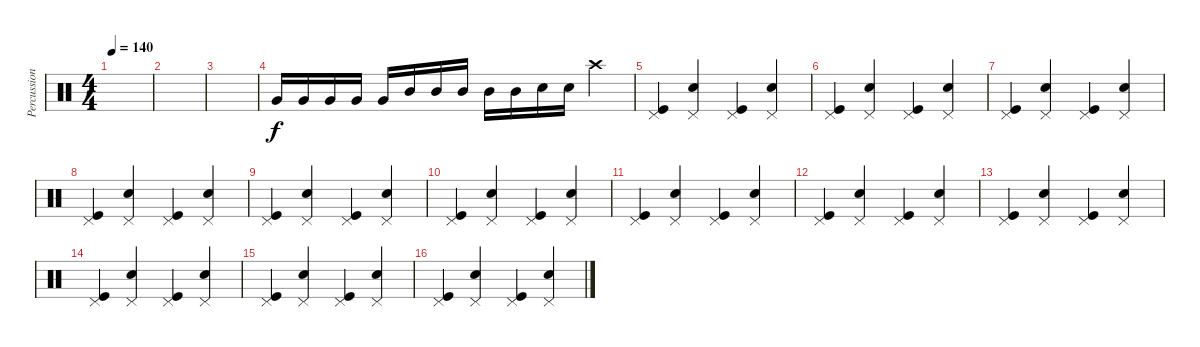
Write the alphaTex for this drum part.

\track ("Percussion" "Percussion") {instrument percussion}
\staff {score}
\articulation defaults
\ts (4 4)
\tempo 140
\clef neutral
\ks c
|
|
|
"Very Low Tom (hit)".16 "Very Low Tom (hit)".16 "Very Low Tom (hit)".16 "Very Low Tom (hit)".16 "Very Low Tom (hit)".16 "Mid Tom (hit)".16 "Mid Tom (hit)".16 "Mid Tom (hit)".16 "Mid Tom (hit)".16 "Mid Tom (hit)".16 "Snare (hit) 2".16 "Snare (hit) 2".16 "Crash high (hit)".4 |
("Kick (hit)" "Pedal Hi-Hat (hit)").4 ("Snare (hit) 2" "Pedal Hi-Hat (hit)").4 ("Kick (hit)" "Pedal Hi-Hat (hit)").4 ("Snare (hit) 2" "Pedal Hi-Hat (hit)").4 |
("Kick (hit)" "Pedal Hi-Hat (hit)").4 ("Snare (hit) 2" "Pedal Hi-Hat (hit)").4 ("Kick (hit)" "Pedal Hi-Hat (hit)").4 ("Snare (hit) 2" "Pedal Hi-Hat (hit)").4 |
("Kick (hit)" "Pedal Hi-Hat (hit)").4 ("Snare (hit) 2" "Pedal Hi-Hat (hit)").4 ("Kick (hit)" "Pedal Hi-Hat (hit)").4 ("Snare (hit) 2" "Pedal Hi-Hat (hit)").4 |
("Kick (hit)" "Pedal Hi-Hat (hit)").4 ("Snare (hit) 2" "Pedal Hi-Hat (hit)").4 ("Kick (hit)" "Pedal Hi-Hat (hit)").4 ("Snare (hit) 2" "Pedal Hi-Hat (hit)").4 |
("Kick (hit)" "Pedal Hi-Hat (hit)").4 ("Snare (hit) 2" "Pedal Hi-Hat (hit)").4 ("Kick (hit)" "Pedal Hi-Hat (hit)").4 ("Snare (hit) 2" "Pedal Hi-Hat (hit)").4 |
("Kick (hit)" "Pedal Hi-Hat (hit)").4 ("Snare (hit) 2" "Pedal Hi-Hat (hit)").4 ("Kick (hit)" "Pedal Hi-Hat (hit)").4 ("Snare (hit) 2" "Pedal Hi-Hat (hit)").4 |
("Kick (hit)" "Pedal Hi-Hat (hit)").4 ("Snare (hit) 2" "Pedal Hi-Hat (hit)").4 ("Kick (hit)" "Pedal Hi-Hat (hit)").4 ("Snare (hit) 2" "Pedal Hi-Hat (hit)").4 |
("Kick (hit)" "Pedal Hi-Hat (hit)").4 ("Snare (hit) 2" "Pedal Hi-Hat (hit)").4 ("Kick (hit)" "Pedal Hi-Hat (hit)").4 ("Snare (hit) 2" "Pedal Hi-Hat (hit)").4 |
("Kick (hit)" "Pedal Hi-Hat (hit)").4 ("Snare (hit) 2" "Pedal Hi-Hat (hit)").4 ("Kick (hit)" "Pedal Hi-Hat (hit)").4 ("Snare (hit) 2" "Pedal Hi-Hat (hit)").4 |
("Kick (hit)" "Pedal Hi-Hat (hit)").4 ("Snare (hit) 2" "Pedal Hi-Hat (hit)").4 ("Kick (hit)" "Pedal Hi-Hat (hit)").4 ("Snare (hit) 2" "Pedal Hi-Hat (hit)").4 |
("Kick (hit)" "Pedal Hi-Hat (hit)").4 ("Snare (hit) 2" "Pedal Hi-Hat (hit)").4 ("Kick (hit)" "Pedal Hi-Hat (hit)").4 ("Snare (hit) 2" "Pedal Hi-Hat (hit)").4 |
("Kick (hit)" "Pedal Hi-Hat (hit)").4 ("Snare (hit) 2" "Pedal Hi-Hat (hit)").4 ("Kick (hit)" "Pedal Hi-Hat (hit)").4 ("Snare (hit) 2" "Pedal Hi-Hat (hit)").4
